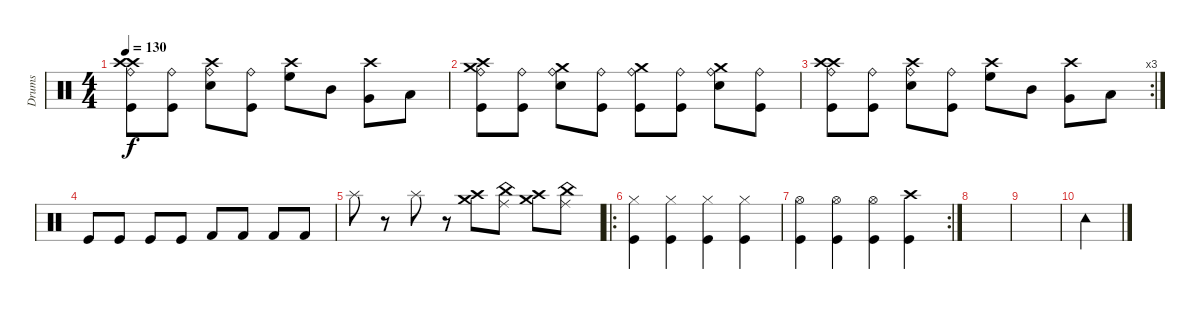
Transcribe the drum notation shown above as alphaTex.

\track ("Drums" "Drums") {instrument percussion}
\staff {score}
\articulation defaults
\ts (4 4)
\tempo 130
\clef neutral
\ks c
("Crash high (hit)" "Kick (hit)" "Ride (bell)" "Crash high (hit)").8{dy f} ("Kick (hit)" "Ride (bell)").8 ("Electric Snare (hit)" "Ride (bell)" "Crash high (hit)").8 ("Kick (hit)" "Ride (bell)").8 ("High Floor Tom (hit)" "Crash high (hit)").8 "Mid Tom (hit)".8 ("Very Low Tom (hit)" "Crash high (hit)").8 "Low Floor Tom (hit)".8 |
("Crash high (hit)" "Kick (hit)" "Ride (bell)" "Crash medium (hit)").8 ("Kick (hit)" "Ride (bell)").8 ("Electric Snare (hit)" "Ride (bell)" "Crash medium (hit)").8 ("Kick (hit)" "Ride (bell)").8 ("Kick (hit)" "Ride (bell)" "Crash medium (hit)").8 ("Kick (hit)" "Ride (bell)").8 ("Electric Snare (hit)" "Ride (bell)" "Crash medium (hit)").8 ("Kick (hit)" "Ride (bell)").8 |
\rc 3
("Crash high (hit)" "Kick (hit)" "Ride (bell)" "Crash high (hit)").8 ("Kick (hit)" "Ride (bell)").8 ("Electric Snare (hit)" "Ride (bell)" "Crash high (hit)").8 ("Kick (hit)" "Ride (bell)").8 ("High Floor Tom (hit)" "Crash high (hit)").8 "Mid Tom (hit)".8 ("Very Low Tom (hit)" "Crash high (hit)").8 "Low Floor Tom (hit)".8 |
"Kick (hit)".8 "Kick (hit)".8 "Kick (hit)".8 "Kick (hit)".8 "Kick (hit) 2".8 "Kick (hit) 2".8 "Kick (hit) 2".8 "Kick (hit) 2".8 |
"Splash (hit)".8 r.8 "Splash (hit)".8 r.8 ("Crash high (hit)" "Crash medium (hit)").8 ("Ride (middle)" "China (hit)").8 ("Crash high (hit)" "Crash medium (hit)").8 ("Ride (middle)" "China (hit)").8 |
\ro
("Kick (hit)" "Hi-Hat (closed)").4 ("Kick (hit)" "Hi-Hat (closed)").4 ("Kick (hit)" "Hi-Hat (closed)").4 ("Kick (hit)" "Hi-Hat (closed)").4 |
\rc 2
("Hi-Hat (open)" "Kick (hit)").4 ("Hi-Hat (open)" "Kick (hit)").4 ("Hi-Hat (open)" "Kick (hit)").4 ("Crash high (hit)" "Kick (hit)").4 |
|
|
"Tambourine (hit)".4
